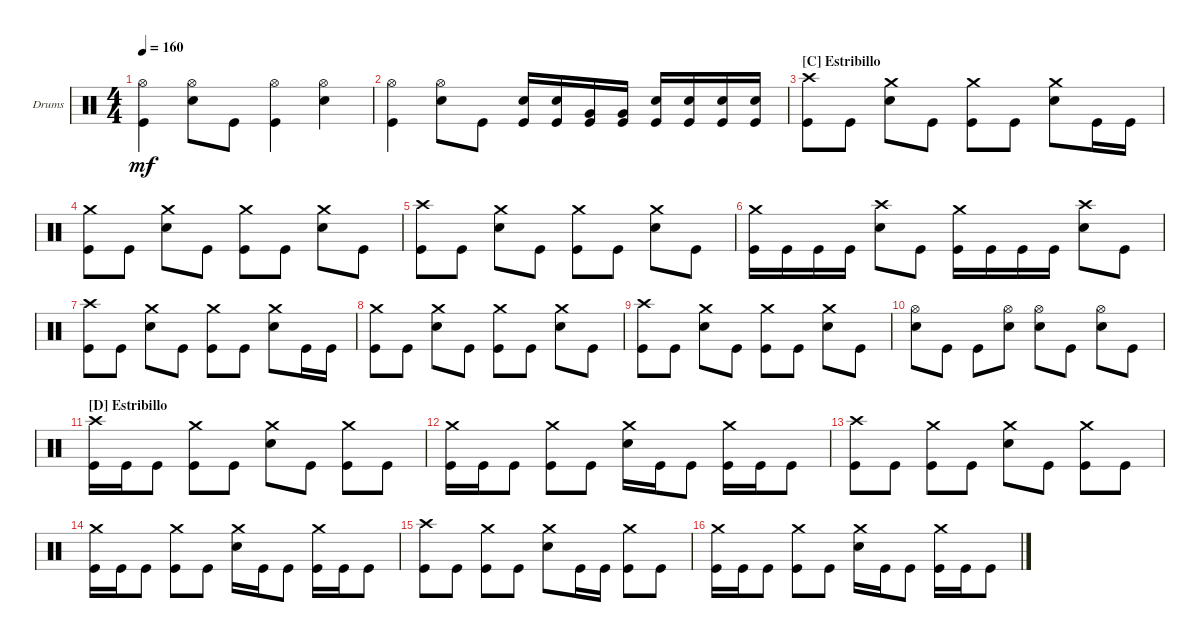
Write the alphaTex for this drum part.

\bracketExtendMode groupsimilarinstruments
\firstSystemTrackNameOrientation horizontal
\otherSystemsTrackNameOrientation horizontal
\track ("Nick Augusto" "Drums") {instrument percussion}
\staff {score}
\articulation defaults
\ts (4 4)
\tempo 160
\clef neutral
\ks c
("Kick (hit)" "Hi-Hat (open)").4{dy mf} ("Snare (hit) 2" "Hi-Hat (open)").8 "Kick (hit)".8 ("Kick (hit)" "Hi-Hat (open)").4 ("Snare (hit) 2" "Hi-Hat (open)").4 |
("Kick (hit)" "Hi-Hat (open)").4 ("Snare (hit) 2" "Hi-Hat (open)").8 "Kick (hit)".8 ("Kick (hit)" "Snare (hit) 2").16 ("Kick (hit)" "Snare (hit) 2").16 ("Kick (hit)" "Very Low Tom (hit)").16 ("Kick (hit)" "Very Low Tom (hit)").16 ("Kick (hit)" "Snare (hit) 2").16 ("Kick (hit)" "Snare (hit) 2").16 ("Kick (hit)" "Snare (hit) 2").16 ("Kick (hit)" "Snare (hit) 2").16 |
\section ("C" "Estribillo")
("Kick (hit)" "Crash high (hit)").8 "Kick (hit)".8 ("Snare (hit) 2" "Crash medium (hit)").8 "Kick (hit)".8 ("Kick (hit)" "Crash medium (hit)").8 "Kick (hit)".8 ("Snare (hit) 2" "Crash medium (hit)").8 "Kick (hit)".16 "Kick (hit)".16 |
("Kick (hit)" "Crash medium (hit)").8 "Kick (hit)".8 ("Snare (hit) 2" "Crash medium (hit)").8 "Kick (hit)".8 ("Kick (hit)" "Crash medium (hit)").8 "Kick (hit)".8 ("Snare (hit) 2" "Crash medium (hit)").8 "Kick (hit)".8 |
("Kick (hit)" "Crash high (hit)").8 "Kick (hit)".8 ("Snare (hit) 2" "Crash medium (hit)").8 "Kick (hit)".8 ("Kick (hit)" "Crash medium (hit)").8 "Kick (hit)".8 ("Snare (hit) 2" "Crash medium (hit)").8 "Kick (hit)".8 |
("Kick (hit)" "Crash medium (hit)").16 "Kick (hit)".16 "Kick (hit)".16 "Kick (hit)".16 ("Snare (hit) 2" "Crash high (hit)").8 "Kick (hit)".8 ("Kick (hit)" "Crash medium (hit)").16 "Kick (hit)".16 "Kick (hit)".16 "Kick (hit)".16 ("Snare (hit) 2" "Crash high (hit)").8 "Kick (hit)".8 |
("Kick (hit)" "Crash high (hit)").8 "Kick (hit)".8 ("Snare (hit) 2" "Crash medium (hit)").8 "Kick (hit)".8 ("Kick (hit)" "Crash medium (hit)").8 "Kick (hit)".8 ("Snare (hit) 2" "Crash medium (hit)").8 "Kick (hit)".16 "Kick (hit)".16 |
("Kick (hit)" "Crash medium (hit)").8 "Kick (hit)".8 ("Snare (hit) 2" "Crash medium (hit)").8 "Kick (hit)".8 ("Kick (hit)" "Crash medium (hit)").8 "Kick (hit)".8 ("Snare (hit) 2" "Crash medium (hit)").8 "Kick (hit)".8 |
("Kick (hit)" "Crash high (hit)").8 "Kick (hit)".8 ("Snare (hit) 2" "Crash medium (hit)").8 "Kick (hit)".8 ("Kick (hit)" "Crash medium (hit)").8 "Kick (hit)".8 ("Snare (hit) 2" "Crash medium (hit)").8 "Kick (hit)".8 |
("Snare (hit) 2" "Hi-Hat (open)").8 "Kick (hit)".8 "Kick (hit)".8 ("Snare (hit) 2" "Hi-Hat (open)").8 ("Snare (hit) 2" "Hi-Hat (open)").8 "Kick (hit)".8 ("Snare (hit) 2" "Hi-Hat (open)").8 "Kick (hit)".8 |
\section ("D" "Estribillo")
("Kick (hit)" "Crash high (hit)").16 "Kick (hit)".16 "Kick (hit)".8 ("Crash medium (hit)" "Kick (hit)").8 "Kick (hit)".8 ("Crash medium (hit)" "Snare (hit) 2").8 "Kick (hit)".8 ("Crash medium (hit)" "Kick (hit)").8 "Kick (hit)".8 |
("Kick (hit)" "Crash medium (hit)").16 "Kick (hit)".16 "Kick (hit)".8 ("Crash medium (hit)" "Kick (hit)").8 "Kick (hit)".8 ("Crash medium (hit)" "Snare (hit) 2").16 "Kick (hit)".16 "Kick (hit)".8 ("Crash medium (hit)" "Kick (hit)").16 "Kick (hit)".16 "Kick (hit)".8 |
("Kick (hit)" "Crash high (hit)").8 "Kick (hit)".8 ("Crash medium (hit)" "Kick (hit)").8 "Kick (hit)".8 ("Crash medium (hit)" "Snare (hit) 2").8 "Kick (hit)".8 ("Crash medium (hit)" "Kick (hit)").8 "Kick (hit)".8 |
("Kick (hit)" "Crash medium (hit)").16 "Kick (hit)".16 "Kick (hit)".8 ("Crash medium (hit)" "Kick (hit)").8 "Kick (hit)".8 ("Crash medium (hit)" "Snare (hit) 2").16 "Kick (hit)".16 "Kick (hit)".8 ("Crash medium (hit)" "Kick (hit)").16 "Kick (hit)".16 "Kick (hit)".8 |
("Kick (hit)" "Crash high (hit)").8 "Kick (hit)".8 ("Crash medium (hit)" "Kick (hit)").8 "Kick (hit)".8 ("Crash medium (hit)" "Snare (hit) 2").8 "Kick (hit)".16 "Kick (hit)".16 ("Crash medium (hit)" "Kick (hit)").8 "Kick (hit)".8 |
("Kick (hit)" "Crash medium (hit)").16 "Kick (hit)".16 "Kick (hit)".8 ("Crash medium (hit)" "Kick (hit)").8 "Kick (hit)".8 ("Crash medium (hit)" "Snare (hit) 2").16 "Kick (hit)".16 "Kick (hit)".8 ("Crash medium (hit)" "Kick (hit)").16 "Kick (hit)".16 "Kick (hit)".8
